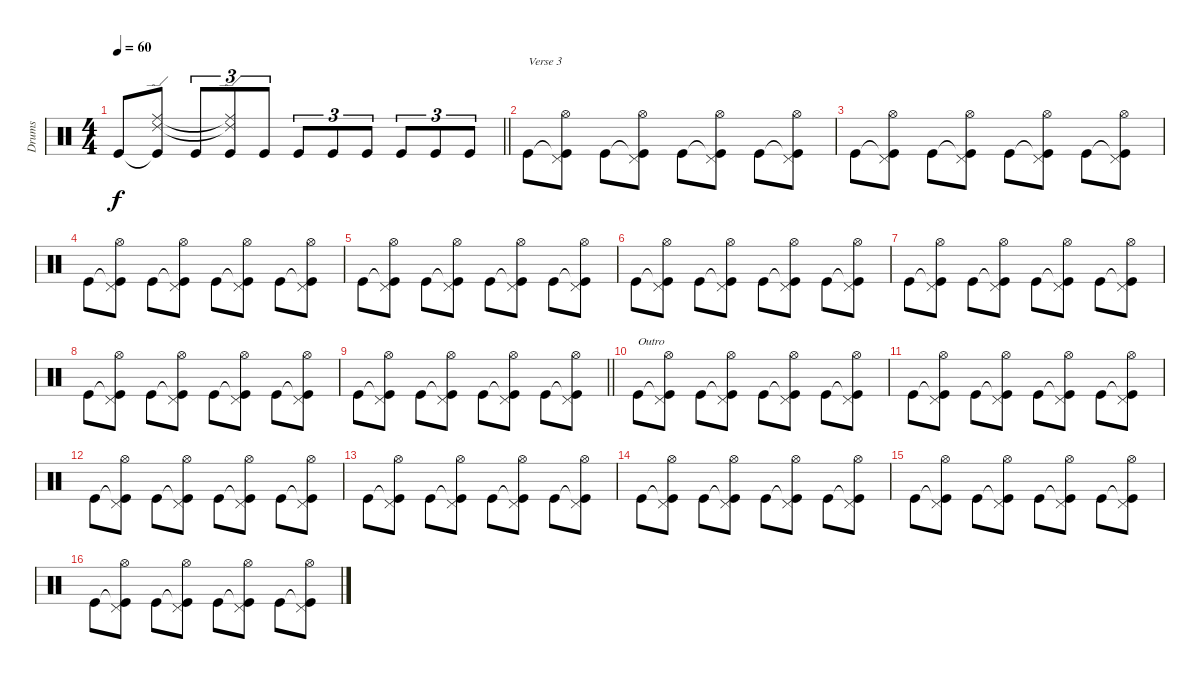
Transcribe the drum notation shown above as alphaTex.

\track ("Drums" "Drums") {instrument percussion}
\staff {score}
\articulation defaults
\ts (4 4)
\tempo 60
\clef neutral
\barLineRight lightlight
\ks c "Kick (hit)".8{dy f}
("Kick (hit)"{t} "Ride (middle)" "Ride (edge) 2").8 "Kick (hit)".8{tu (3 2)} ("Kick (hit)" "Ride (middle)"{t} "Ride (edge) 2"{t}).8{tu (3 2)} "Kick (hit)".8{tu (3 2)} "Kick (hit)".8{tu (3 2)} "Kick (hit)".8{tu (3 2)} "Kick (hit)".8{tu (3 2)} "Kick (hit)".8{tu (3 2)} "Kick (hit)".8{tu (3 2)} "Kick (hit)".8{tu (3 2)} |
"Kick (hit)".8{txt "Verse 3"} ("Kick (hit)"{t} "Pedal Hi-Hat (hit)" "Hi-Hat (open)").8 "Kick (hit)".8 ("Kick (hit)"{t} "Pedal Hi-Hat (hit)" "Hi-Hat (open)").8 "Kick (hit)".8 ("Kick (hit)"{t} "Pedal Hi-Hat (hit)" "Hi-Hat (open)").8 "Kick (hit)".8 ("Kick (hit)"{t} "Pedal Hi-Hat (hit)" "Hi-Hat (open)").8 |
"Kick (hit)".8 ("Kick (hit)"{t} "Pedal Hi-Hat (hit)" "Hi-Hat (open)").8 "Kick (hit)".8 ("Kick (hit)"{t} "Pedal Hi-Hat (hit)" "Hi-Hat (open)").8 "Kick (hit)".8 ("Kick (hit)"{t} "Pedal Hi-Hat (hit)" "Hi-Hat (open)").8 "Kick (hit)".8 ("Kick (hit)"{t} "Pedal Hi-Hat (hit)" "Hi-Hat (open)").8 |
"Kick (hit)".8 ("Kick (hit)"{t} "Pedal Hi-Hat (hit)" "Hi-Hat (open)").8 "Kick (hit)".8 ("Kick (hit)"{t} "Pedal Hi-Hat (hit)" "Hi-Hat (open)").8 "Kick (hit)".8 ("Kick (hit)"{t} "Pedal Hi-Hat (hit)" "Hi-Hat (open)").8 "Kick (hit)".8 ("Kick (hit)"{t} "Pedal Hi-Hat (hit)" "Hi-Hat (open)").8 |
"Kick (hit)".8 ("Kick (hit)"{t} "Pedal Hi-Hat (hit)" "Hi-Hat (open)").8 "Kick (hit)".8 ("Kick (hit)"{t} "Pedal Hi-Hat (hit)" "Hi-Hat (open)").8 "Kick (hit)".8 ("Kick (hit)"{t} "Pedal Hi-Hat (hit)" "Hi-Hat (open)").8 "Kick (hit)".8 ("Kick (hit)"{t} "Pedal Hi-Hat (hit)" "Hi-Hat (open)").8 |
"Kick (hit)".8 ("Kick (hit)"{t} "Pedal Hi-Hat (hit)" "Hi-Hat (open)").8 "Kick (hit)".8 ("Kick (hit)"{t} "Pedal Hi-Hat (hit)" "Hi-Hat (open)").8 "Kick (hit)".8 ("Kick (hit)"{t} "Pedal Hi-Hat (hit)" "Hi-Hat (open)").8 "Kick (hit)".8 ("Kick (hit)"{t} "Pedal Hi-Hat (hit)" "Hi-Hat (open)").8 |
"Kick (hit)".8 ("Kick (hit)"{t} "Pedal Hi-Hat (hit)" "Hi-Hat (open)").8 "Kick (hit)".8 ("Kick (hit)"{t} "Pedal Hi-Hat (hit)" "Hi-Hat (open)").8 "Kick (hit)".8 ("Kick (hit)"{t} "Pedal Hi-Hat (hit)" "Hi-Hat (open)").8 "Kick (hit)".8 ("Kick (hit)"{t} "Pedal Hi-Hat (hit)" "Hi-Hat (open)").8 |
"Kick (hit)".8 ("Kick (hit)"{t} "Pedal Hi-Hat (hit)" "Hi-Hat (open)").8 "Kick (hit)".8 ("Kick (hit)"{t} "Pedal Hi-Hat (hit)" "Hi-Hat (open)").8 "Kick (hit)".8 ("Kick (hit)"{t} "Pedal Hi-Hat (hit)" "Hi-Hat (open)").8 "Kick (hit)".8 ("Kick (hit)"{t} "Pedal Hi-Hat (hit)" "Hi-Hat (open)").8 |
\barLineRight lightlight "Kick (hit)".8
("Kick (hit)"{t} "Pedal Hi-Hat (hit)" "Hi-Hat (open)").8 "Kick (hit)".8 ("Kick (hit)"{t} "Pedal Hi-Hat (hit)" "Hi-Hat (open)").8 "Kick (hit)".8 ("Kick (hit)"{t} "Pedal Hi-Hat (hit)" "Hi-Hat (open)").8 "Kick (hit)".8 ("Kick (hit)"{t} "Pedal Hi-Hat (hit)" "Hi-Hat (open)").8 |
"Kick (hit)".8{txt "Outro"} ("Kick (hit)"{t} "Pedal Hi-Hat (hit)" "Hi-Hat (open)").8 "Kick (hit)".8 ("Kick (hit)"{t} "Pedal Hi-Hat (hit)" "Hi-Hat (open)").8 "Kick (hit)".8 ("Kick (hit)"{t} "Pedal Hi-Hat (hit)" "Hi-Hat (open)").8 "Kick (hit)".8 ("Kick (hit)"{t} "Pedal Hi-Hat (hit)" "Hi-Hat (open)").8 |
"Kick (hit)".8 ("Kick (hit)"{t} "Pedal Hi-Hat (hit)" "Hi-Hat (open)").8 "Kick (hit)".8 ("Kick (hit)"{t} "Pedal Hi-Hat (hit)" "Hi-Hat (open)").8 "Kick (hit)".8 ("Kick (hit)"{t} "Pedal Hi-Hat (hit)" "Hi-Hat (open)").8 "Kick (hit)".8 ("Kick (hit)"{t} "Pedal Hi-Hat (hit)" "Hi-Hat (open)").8 |
"Kick (hit)".8 ("Kick (hit)"{t} "Pedal Hi-Hat (hit)" "Hi-Hat (open)").8 "Kick (hit)".8 ("Kick (hit)"{t} "Pedal Hi-Hat (hit)" "Hi-Hat (open)").8 "Kick (hit)".8 ("Kick (hit)"{t} "Pedal Hi-Hat (hit)" "Hi-Hat (open)").8 "Kick (hit)".8 ("Kick (hit)"{t} "Pedal Hi-Hat (hit)" "Hi-Hat (open)").8 |
"Kick (hit)".8 ("Kick (hit)"{t} "Pedal Hi-Hat (hit)" "Hi-Hat (open)").8 "Kick (hit)".8 ("Kick (hit)"{t} "Pedal Hi-Hat (hit)" "Hi-Hat (open)").8 "Kick (hit)".8 ("Kick (hit)"{t} "Pedal Hi-Hat (hit)" "Hi-Hat (open)").8 "Kick (hit)".8 ("Kick (hit)"{t} "Pedal Hi-Hat (hit)" "Hi-Hat (open)").8 |
"Kick (hit)".8 ("Kick (hit)"{t} "Pedal Hi-Hat (hit)" "Hi-Hat (open)").8 "Kick (hit)".8 ("Kick (hit)"{t} "Pedal Hi-Hat (hit)" "Hi-Hat (open)").8 "Kick (hit)".8 ("Kick (hit)"{t} "Pedal Hi-Hat (hit)" "Hi-Hat (open)").8 "Kick (hit)".8 ("Kick (hit)"{t} "Pedal Hi-Hat (hit)" "Hi-Hat (open)").8 |
"Kick (hit)".8 ("Kick (hit)"{t} "Pedal Hi-Hat (hit)" "Hi-Hat (open)").8 "Kick (hit)".8 ("Kick (hit)"{t} "Pedal Hi-Hat (hit)" "Hi-Hat (open)").8 "Kick (hit)".8 ("Kick (hit)"{t} "Pedal Hi-Hat (hit)" "Hi-Hat (open)").8 "Kick (hit)".8 ("Kick (hit)"{t} "Pedal Hi-Hat (hit)" "Hi-Hat (open)").8 |
"Kick (hit)".8 ("Kick (hit)"{t} "Pedal Hi-Hat (hit)" "Hi-Hat (open)").8 "Kick (hit)".8 ("Kick (hit)"{t} "Pedal Hi-Hat (hit)" "Hi-Hat (open)").8 "Kick (hit)".8 ("Kick (hit)"{t} "Pedal Hi-Hat (hit)" "Hi-Hat (open)").8 "Kick (hit)".8 ("Kick (hit)"{t} "Pedal Hi-Hat (hit)" "Hi-Hat (open)").8
